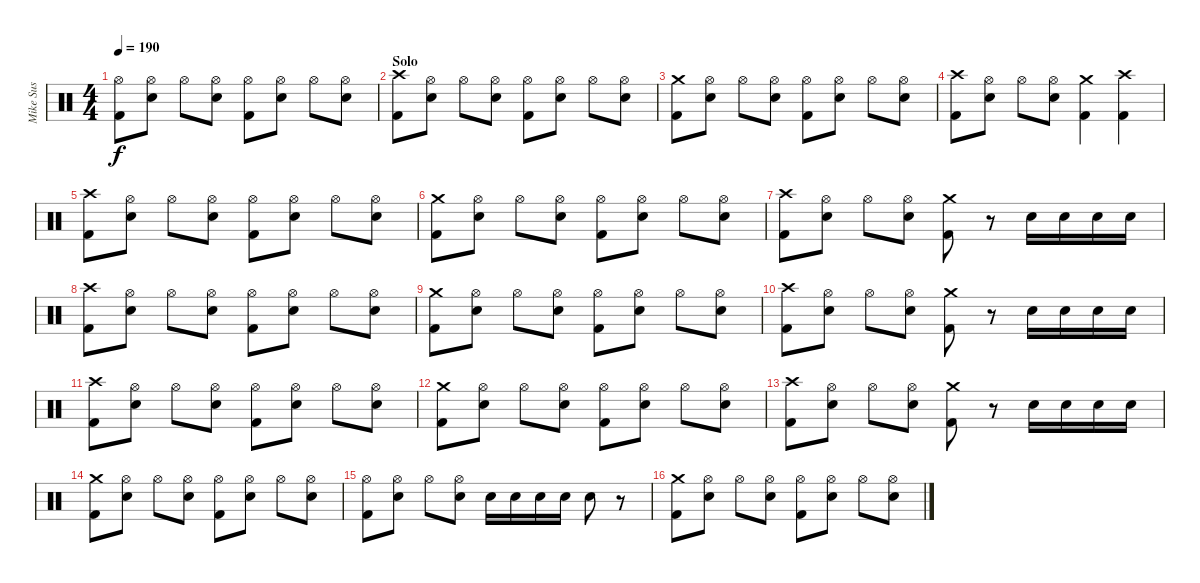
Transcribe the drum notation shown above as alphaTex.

\track ("Mike Sus" "Mike Sus") {instrument percussion}
\staff {score}
\articulation defaults
\ts (4 4)
\tempo 190
\clef neutral
\ks c
("Hi-Hat (open)" "Kick (hit) 2").8{dy f} ("Hi-Hat (open)" "Electric Snare (hit)").8 "Hi-Hat (open)".8 ("Hi-Hat (open)" "Electric Snare (hit)").8 ("Hi-Hat (open)" "Kick (hit) 2").8 ("Hi-Hat (open)" "Electric Snare (hit)").8 "Hi-Hat (open)".8 ("Hi-Hat (open)" "Electric Snare (hit)").8 |
\section ("" "Solo")
("Crash high (hit)" "Kick (hit) 2").8 ("Hi-Hat (open)" "Electric Snare (hit)").8 "Hi-Hat (open)".8 ("Hi-Hat (open)" "Electric Snare (hit)").8 ("Hi-Hat (open)" "Kick (hit) 2").8 ("Hi-Hat (open)" "Electric Snare (hit)").8 "Hi-Hat (open)".8 ("Hi-Hat (open)" "Electric Snare (hit)").8 |
("Crash medium (hit)" "Kick (hit) 2").8 ("Hi-Hat (open)" "Electric Snare (hit)").8 "Hi-Hat (open)".8 ("Hi-Hat (open)" "Electric Snare (hit)").8 ("Hi-Hat (open)" "Kick (hit) 2").8 ("Hi-Hat (open)" "Electric Snare (hit)").8 "Hi-Hat (open)".8 ("Hi-Hat (open)" "Electric Snare (hit)").8 |
("Crash high (hit)" "Kick (hit) 2").8 ("Hi-Hat (open)" "Electric Snare (hit)").8 "Hi-Hat (open)".8 ("Hi-Hat (open)" "Electric Snare (hit)").8 ("Crash medium (hit)" "Kick (hit) 2").4 ("Crash high (hit)" "Kick (hit) 2").4 |
("Crash high (hit)" "Kick (hit) 2").8 ("Hi-Hat (open)" "Electric Snare (hit)").8 "Hi-Hat (open)".8 ("Hi-Hat (open)" "Electric Snare (hit)").8 ("Hi-Hat (open)" "Kick (hit) 2").8 ("Hi-Hat (open)" "Electric Snare (hit)").8 "Hi-Hat (open)".8 ("Hi-Hat (open)" "Electric Snare (hit)").8 |
("Crash medium (hit)" "Kick (hit) 2").8 ("Hi-Hat (open)" "Electric Snare (hit)").8 "Hi-Hat (open)".8 ("Hi-Hat (open)" "Electric Snare (hit)").8 ("Hi-Hat (open)" "Kick (hit) 2").8 ("Hi-Hat (open)" "Electric Snare (hit)").8 "Hi-Hat (open)".8 ("Hi-Hat (open)" "Electric Snare (hit)").8 |
("Crash high (hit)" "Kick (hit) 2").8 ("Hi-Hat (open)" "Electric Snare (hit)").8 "Hi-Hat (open)".8 ("Hi-Hat (open)" "Electric Snare (hit)").8 ("Crash medium (hit)" "Kick (hit) 2").8 r.8 "Electric Snare (hit)".16 "Electric Snare (hit)".16 "Electric Snare (hit)".16 "Electric Snare (hit)".16 |
("Crash high (hit)" "Kick (hit) 2").8 ("Hi-Hat (open)" "Electric Snare (hit)").8 "Hi-Hat (open)".8 ("Hi-Hat (open)" "Electric Snare (hit)").8 ("Hi-Hat (open)" "Kick (hit) 2").8 ("Hi-Hat (open)" "Electric Snare (hit)").8 "Hi-Hat (open)".8 ("Hi-Hat (open)" "Electric Snare (hit)").8 |
("Crash medium (hit)" "Kick (hit) 2").8 ("Hi-Hat (open)" "Electric Snare (hit)").8 "Hi-Hat (open)".8 ("Hi-Hat (open)" "Electric Snare (hit)").8 ("Hi-Hat (open)" "Kick (hit) 2").8 ("Hi-Hat (open)" "Electric Snare (hit)").8 "Hi-Hat (open)".8 ("Hi-Hat (open)" "Electric Snare (hit)").8 |
("Crash high (hit)" "Kick (hit) 2").8 ("Hi-Hat (open)" "Electric Snare (hit)").8 "Hi-Hat (open)".8 ("Hi-Hat (open)" "Electric Snare (hit)").8 ("Crash medium (hit)" "Kick (hit) 2").8 r.8 "Electric Snare (hit)".16 "Electric Snare (hit)".16 "Electric Snare (hit)".16 "Electric Snare (hit)".16 |
("Crash high (hit)" "Kick (hit) 2").8 ("Hi-Hat (open)" "Electric Snare (hit)").8 "Hi-Hat (open)".8 ("Hi-Hat (open)" "Electric Snare (hit)").8 ("Hi-Hat (open)" "Kick (hit) 2").8 ("Hi-Hat (open)" "Electric Snare (hit)").8 "Hi-Hat (open)".8 ("Hi-Hat (open)" "Electric Snare (hit)").8 |
("Crash medium (hit)" "Kick (hit) 2").8 ("Hi-Hat (open)" "Electric Snare (hit)").8 "Hi-Hat (open)".8 ("Hi-Hat (open)" "Electric Snare (hit)").8 ("Hi-Hat (open)" "Kick (hit) 2").8 ("Hi-Hat (open)" "Electric Snare (hit)").8 "Hi-Hat (open)".8 ("Hi-Hat (open)" "Electric Snare (hit)").8 |
("Crash high (hit)" "Kick (hit) 2").8 ("Hi-Hat (open)" "Electric Snare (hit)").8 "Hi-Hat (open)".8 ("Hi-Hat (open)" "Electric Snare (hit)").8 ("Crash medium (hit)" "Kick (hit) 2").8 r.8 "Electric Snare (hit)".16 "Electric Snare (hit)".16 "Electric Snare (hit)".16 "Electric Snare (hit)".16 |
("Crash medium (hit)" "Kick (hit) 2").8 ("Hi-Hat (open)" "Electric Snare (hit)").8 "Hi-Hat (open)".8 ("Hi-Hat (open)" "Electric Snare (hit)").8 ("Hi-Hat (open)" "Kick (hit) 2").8 ("Hi-Hat (open)" "Electric Snare (hit)").8 "Hi-Hat (open)".8 ("Hi-Hat (open)" "Electric Snare (hit)").8 |
("Hi-Hat (open)" "Kick (hit) 2").8 ("Hi-Hat (open)" "Electric Snare (hit)").8 "Hi-Hat (open)".8 ("Hi-Hat (open)" "Electric Snare (hit)").8 "Electric Snare (hit)".16 "Electric Snare (hit)".16 "Electric Snare (hit)".16 "Electric Snare (hit)".16 "Electric Snare (hit)".8 r.8 |
("Crash medium (hit)" "Kick (hit) 2").8 ("Hi-Hat (open)" "Electric Snare (hit)").8 "Hi-Hat (open)".8 ("Hi-Hat (open)" "Electric Snare (hit)").8 ("Hi-Hat (open)" "Kick (hit) 2").8 ("Hi-Hat (open)" "Electric Snare (hit)").8 "Hi-Hat (open)".8 ("Hi-Hat (open)" "Electric Snare (hit)").8
